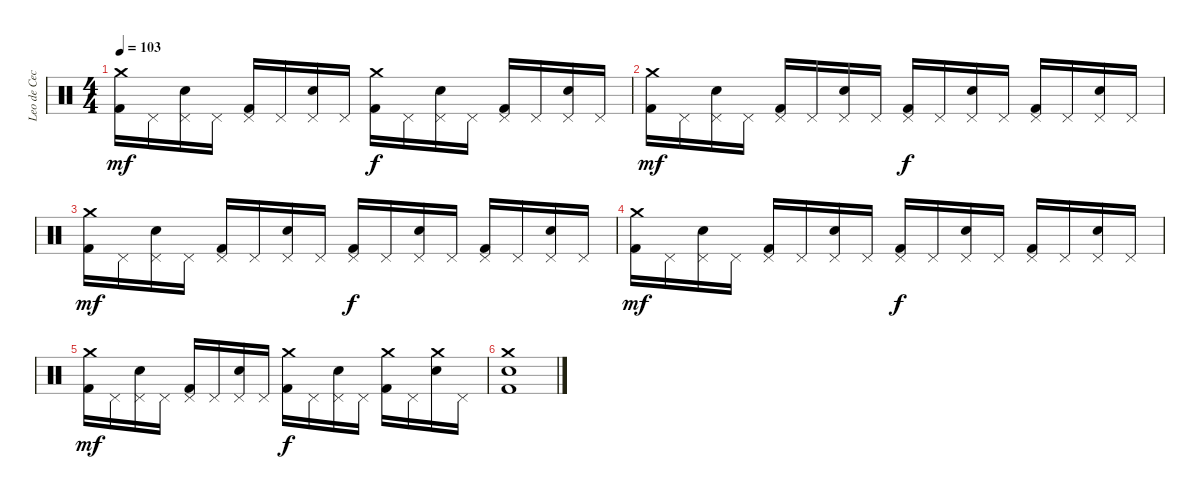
\track ("Leo de Cecco" "Leo de Cec") {instrument percussion}
\staff {score}
\articulation defaults
\ts (4 4)
\tempo 103
\clef neutral
\ks c
("Crash medium (hit)" "Kick (hit) 2").16{dy mf} "Pedal Hi-Hat (hit)".16 ("Pedal Hi-Hat (hit)" "Snare (hit) 2").16 "Pedal Hi-Hat (hit)".16 ("Pedal Hi-Hat (hit)" "Kick (hit) 2").16 "Pedal Hi-Hat (hit)".16 ("Pedal Hi-Hat (hit)" "Snare (hit) 2").16 "Pedal Hi-Hat (hit)".16 ("Crash medium (hit)" "Kick (hit) 2").16{dy f} "Pedal Hi-Hat (hit)".16 ("Pedal Hi-Hat (hit)" "Snare (hit) 2").16 "Pedal Hi-Hat (hit)".16 ("Pedal Hi-Hat (hit)" "Kick (hit) 2").16 "Pedal Hi-Hat (hit)".16 ("Pedal Hi-Hat (hit)" "Snare (hit) 2").16 "Pedal Hi-Hat (hit)".16 |
("Crash medium (hit)" "Kick (hit) 2").16{dy mf} "Pedal Hi-Hat (hit)".16 ("Pedal Hi-Hat (hit)" "Snare (hit) 2").16 "Pedal Hi-Hat (hit)".16 ("Pedal Hi-Hat (hit)" "Kick (hit) 2").16 "Pedal Hi-Hat (hit)".16 ("Pedal Hi-Hat (hit)" "Snare (hit) 2").16 "Pedal Hi-Hat (hit)".16 ("Pedal Hi-Hat (hit)" "Kick (hit) 2").16{dy f} "Pedal Hi-Hat (hit)".16 ("Pedal Hi-Hat (hit)" "Snare (hit) 2").16 "Pedal Hi-Hat (hit)".16 ("Pedal Hi-Hat (hit)" "Kick (hit) 2").16 "Pedal Hi-Hat (hit)".16 ("Pedal Hi-Hat (hit)" "Snare (hit) 2").16 "Pedal Hi-Hat (hit)".16 |
("Crash medium (hit)" "Kick (hit) 2").16{dy mf} "Pedal Hi-Hat (hit)".16 ("Pedal Hi-Hat (hit)" "Snare (hit) 2").16 "Pedal Hi-Hat (hit)".16 ("Pedal Hi-Hat (hit)" "Kick (hit) 2").16 "Pedal Hi-Hat (hit)".16 ("Pedal Hi-Hat (hit)" "Snare (hit) 2").16 "Pedal Hi-Hat (hit)".16 ("Pedal Hi-Hat (hit)" "Kick (hit) 2").16{dy f} "Pedal Hi-Hat (hit)".16 ("Pedal Hi-Hat (hit)" "Snare (hit) 2").16 "Pedal Hi-Hat (hit)".16 ("Pedal Hi-Hat (hit)" "Kick (hit) 2").16 "Pedal Hi-Hat (hit)".16 ("Pedal Hi-Hat (hit)" "Snare (hit) 2").16 "Pedal Hi-Hat (hit)".16 |
("Crash medium (hit)" "Kick (hit) 2").16{dy mf} "Pedal Hi-Hat (hit)".16 ("Pedal Hi-Hat (hit)" "Snare (hit) 2").16 "Pedal Hi-Hat (hit)".16 ("Pedal Hi-Hat (hit)" "Kick (hit) 2").16 "Pedal Hi-Hat (hit)".16 ("Pedal Hi-Hat (hit)" "Snare (hit) 2").16 "Pedal Hi-Hat (hit)".16 ("Pedal Hi-Hat (hit)" "Kick (hit) 2").16{dy f} "Pedal Hi-Hat (hit)".16 ("Pedal Hi-Hat (hit)" "Snare (hit) 2").16 "Pedal Hi-Hat (hit)".16 ("Pedal Hi-Hat (hit)" "Kick (hit) 2").16 "Pedal Hi-Hat (hit)".16 ("Pedal Hi-Hat (hit)" "Snare (hit) 2").16 "Pedal Hi-Hat (hit)".16 |
("Crash medium (hit)" "Kick (hit) 2").16{dy mf} "Pedal Hi-Hat (hit)".16 ("Pedal Hi-Hat (hit)" "Snare (hit) 2").16 "Pedal Hi-Hat (hit)".16 ("Pedal Hi-Hat (hit)" "Kick (hit) 2").16 "Pedal Hi-Hat (hit)".16 ("Pedal Hi-Hat (hit)" "Snare (hit) 2").16 "Pedal Hi-Hat (hit)".16 ("Crash medium (hit)" "Kick (hit) 2").16{dy f} "Pedal Hi-Hat (hit)".16 ("Pedal Hi-Hat (hit)" "Snare (hit) 2").16 "Pedal Hi-Hat (hit)".16 ("Crash medium (hit)" "Kick (hit) 2").16 "Pedal Hi-Hat (hit)".16 ("Crash medium (hit)" "Snare (hit) 2").16 "Pedal Hi-Hat (hit)".16 |
("Crash medium (hit)" "Kick (hit) 2" "Snare (hit) 2").1
